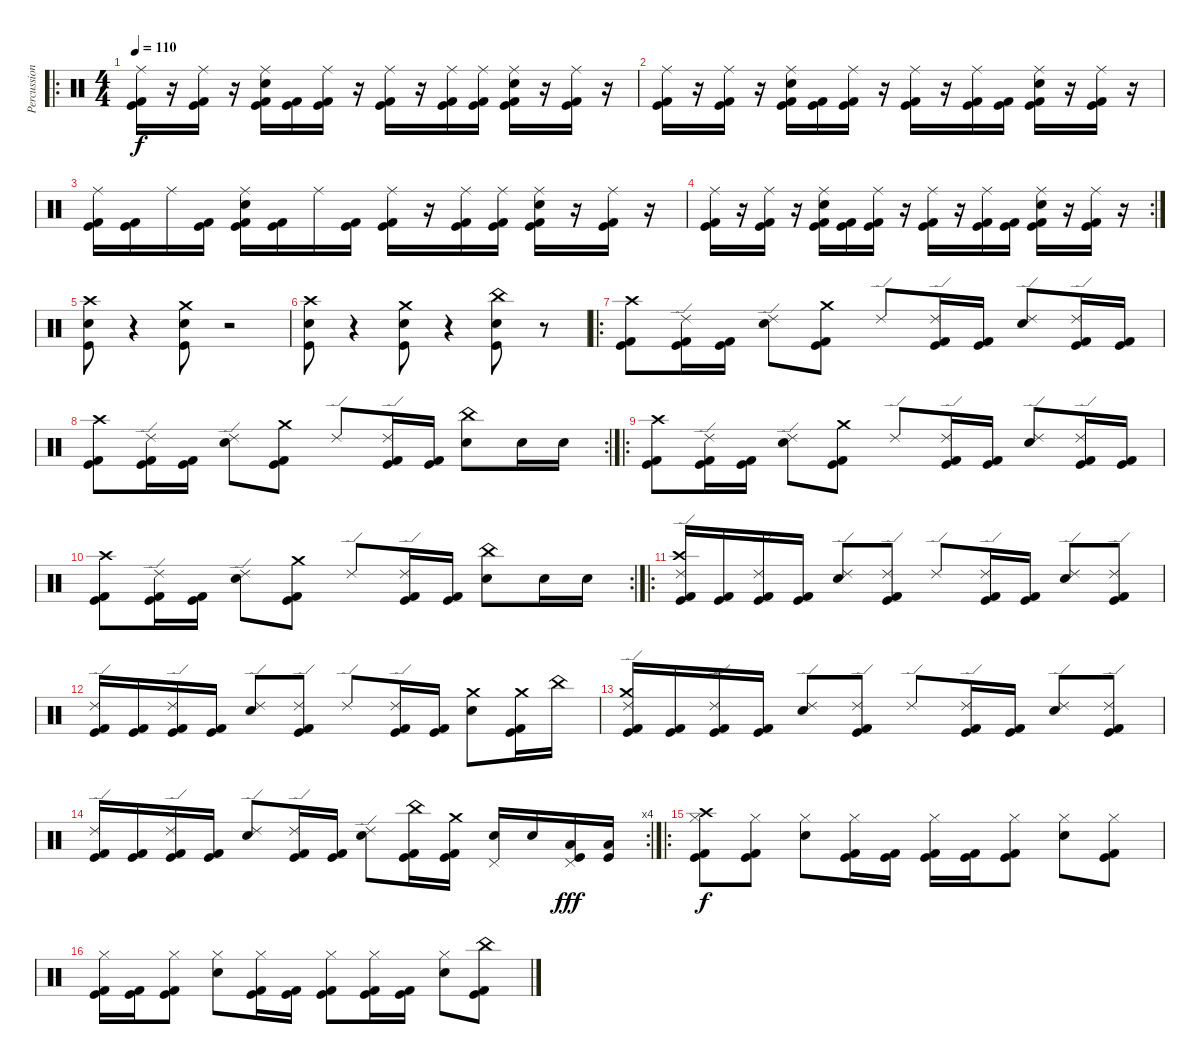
\track ("Percussion" "Percussion") {instrument percussion}
\staff {score}
\articulation defaults
\ro
\ts (4 4)
\tempo 110
\clef neutral
\ks c
("Ride (middle)" "Kick (hit) 2" "Kick (hit)").16{dy f} r.16 ("Ride (middle)" "Kick (hit) 2" "Kick (hit)").16 r.16 ("Ride (middle)" "Snare (hit) 2" "Kick (hit) 2" "Kick (hit)").16 ("Kick (hit) 2" "Kick (hit)").16 ("Ride (middle)" "Kick (hit) 2" "Kick (hit)").16 r.16 ("Ride (middle)" "Kick (hit) 2" "Kick (hit)").16 r.16 ("Ride (middle)" "Kick (hit) 2" "Kick (hit)").16 ("Ride (middle)" "Kick (hit) 2" "Kick (hit)").16 ("Ride (middle)" "Snare (hit) 2" "Kick (hit) 2" "Kick (hit)").16 r.16 ("Ride (middle)" "Kick (hit) 2" "Kick (hit)").16 r.16 |
("Ride (middle)" "Kick (hit) 2" "Kick (hit)").16 r.16 ("Ride (middle)" "Kick (hit) 2" "Kick (hit)").16 r.16 ("Ride (middle)" "Snare (hit) 2" "Kick (hit) 2" "Kick (hit)").16 ("Kick (hit) 2" "Kick (hit)").16 ("Ride (middle)" "Kick (hit) 2" "Kick (hit)").16 r.16 ("Ride (middle)" "Kick (hit) 2" "Kick (hit)").16 r.16 ("Ride (middle)" "Kick (hit) 2" "Kick (hit)").16 ("Kick (hit) 2" "Kick (hit)").16 ("Ride (middle)" "Snare (hit) 2" "Kick (hit) 2" "Kick (hit)").16 r.16 ("Ride (middle)" "Kick (hit) 2" "Kick (hit)").16 r.16 |
("Ride (middle)" "Kick (hit) 2" "Kick (hit)").16 ("Kick (hit) 2" "Kick (hit)").16 "Ride (middle)".16 ("Kick (hit) 2" "Kick (hit)").16 ("Ride (middle)" "Snare (hit) 2" "Kick (hit) 2" "Kick (hit)").16 ("Kick (hit) 2" "Kick (hit)").16 "Ride (middle)".16 ("Kick (hit) 2" "Kick (hit)").16 ("Ride (middle)" "Kick (hit) 2" "Kick (hit)").16 r.16 ("Ride (middle)" "Kick (hit) 2" "Kick (hit)").16 ("Ride (middle)" "Kick (hit) 2" "Kick (hit)").16 ("Ride (middle)" "Snare (hit) 2" "Kick (hit) 2" "Kick (hit)").16 r.16 ("Ride (middle)" "Kick (hit) 2" "Kick (hit)").16 r.16 |
\rc 2
("Ride (middle)" "Kick (hit) 2" "Kick (hit)").16 r.16 ("Ride (middle)" "Kick (hit) 2" "Kick (hit)").16 r.16 ("Ride (middle)" "Snare (hit) 2" "Kick (hit) 2" "Kick (hit)").16 ("Kick (hit) 2" "Kick (hit)").16 ("Ride (middle)" "Kick (hit) 2" "Kick (hit)").16 r.16 ("Ride (middle)" "Kick (hit) 2" "Kick (hit)").16 r.16 ("Ride (middle)" "Kick (hit) 2" "Kick (hit)").16 ("Kick (hit) 2" "Kick (hit)").16 ("Ride (middle)" "Snare (hit) 2" "Kick (hit) 2" "Kick (hit)").16 r.16 ("Ride (middle)" "Kick (hit) 2" "Kick (hit)").16 r.16 |
("Crash high (hit)" "Snare (hit) 2" "Kick (hit)").8 r.4 ("Crash medium (hit)" "Snare (hit) 2" "Kick (hit)").8 r.2 |
("Crash high (hit)" "Snare (hit) 2" "Kick (hit)").8 r.4 ("Crash medium (hit)" "Snare (hit) 2" "Kick (hit)").8 r.4 ("China (hit)" "Snare (hit) 2" "Kick (hit)").8 r.8 |
\ro
("Crash high (hit)" "Kick (hit) 2" "Kick (hit)").8 ("Ride (edge) 2" "Kick (hit) 2" "Kick (hit)").16 ("Kick (hit) 2" "Kick (hit)").16 ("Ride (edge) 2" "Snare (hit) 2").8 ("Crash medium (hit)" "Kick (hit) 2" "Kick (hit)").8 "Ride (edge) 2".8 ("Ride (edge) 2" "Kick (hit) 2" "Kick (hit)").16 ("Kick (hit) 2" "Kick (hit)").16 ("Ride (edge) 2" "Snare (hit) 2").8 ("Ride (edge) 2" "Kick (hit) 2" "Kick (hit)").16 ("Kick (hit) 2" "Kick (hit)").16 |
\rc 2
("Crash high (hit)" "Kick (hit) 2" "Kick (hit)").8 ("Ride (edge) 2" "Kick (hit) 2" "Kick (hit)").16 ("Kick (hit) 2" "Kick (hit)").16 ("Ride (edge) 2" "Snare (hit) 2").8 ("Crash medium (hit)" "Kick (hit) 2" "Kick (hit)").8 "Ride (edge) 2".8 ("Ride (edge) 2" "Kick (hit) 2" "Kick (hit)").16 ("Kick (hit) 2" "Kick (hit)").16 ("China (hit)" "Snare (hit) 2").8 "Snare (hit) 2".16 "Snare (hit) 2".16 |
\ro
("Crash high (hit)" "Kick (hit) 2" "Kick (hit)").8 ("Ride (edge) 2" "Kick (hit) 2" "Kick (hit)").16 ("Kick (hit) 2" "Kick (hit)").16 ("Ride (edge) 2" "Snare (hit) 2").8 ("Crash medium (hit)" "Kick (hit) 2" "Kick (hit)").8 "Ride (edge) 2".8 ("Ride (edge) 2" "Kick (hit) 2" "Kick (hit)").16 ("Kick (hit) 2" "Kick (hit)").16 ("Ride (edge) 2" "Snare (hit) 2").8 ("Ride (edge) 2" "Kick (hit) 2" "Kick (hit)").16 ("Kick (hit) 2" "Kick (hit)").16 |
\rc 2
("Crash high (hit)" "Kick (hit) 2" "Kick (hit)").8 ("Ride (edge) 2" "Kick (hit) 2" "Kick (hit)").16 ("Kick (hit) 2" "Kick (hit)").16 ("Ride (edge) 2" "Snare (hit) 2").8 ("Crash medium (hit)" "Kick (hit) 2" "Kick (hit)").8 "Ride (edge) 2".8 ("Ride (edge) 2" "Kick (hit) 2" "Kick (hit)").16 ("Kick (hit) 2" "Kick (hit)").16 ("China (hit)" "Snare (hit) 2").8 "Snare (hit) 2".16 "Snare (hit) 2".16 |
\ro
("Ride (edge) 2" "Crash high (hit)" "Kick (hit) 2" "Kick (hit)").16 ("Kick (hit) 2" "Kick (hit)").16 ("Ride (edge) 2" "Kick (hit) 2" "Kick (hit)").16 ("Kick (hit) 2" "Kick (hit)").16 ("Ride (edge) 2" "Snare (hit) 2").8 ("Ride (edge) 2" "Kick (hit) 2" "Kick (hit)").8 "Ride (edge) 2".8 ("Ride (edge) 2" "Kick (hit) 2" "Kick (hit)").16 ("Kick (hit) 2" "Kick (hit)").16 ("Ride (edge) 2" "Snare (hit) 2").8 ("Ride (edge) 2" "Kick (hit) 2" "Kick (hit)").8 |
("Ride (edge) 2" "Kick (hit) 2" "Kick (hit)").16 ("Kick (hit) 2" "Kick (hit)").16 ("Ride (edge) 2" "Kick (hit) 2" "Kick (hit)").16 ("Kick (hit) 2" "Kick (hit)").16 ("Ride (edge) 2" "Snare (hit) 2").8 ("Ride (edge) 2" "Kick (hit) 2" "Kick (hit)").8 "Ride (edge) 2".8 ("Ride (edge) 2" "Kick (hit) 2" "Kick (hit)").16 ("Kick (hit) 2" "Kick (hit)").16 ("Crash medium (hit)" "Snare (hit) 2").8 ("Crash medium (hit)" "Kick (hit) 2" "Kick (hit)").16 "China (hit)".16 |
("Ride (edge) 2" "Crash medium (hit)" "Kick (hit) 2" "Kick (hit)").16 ("Kick (hit) 2" "Kick (hit)").16 ("Ride (edge) 2" "Kick (hit) 2" "Kick (hit)").16 ("Kick (hit) 2" "Kick (hit)").16 ("Ride (edge) 2" "Snare (hit) 2").8 ("Ride (edge) 2" "Kick (hit) 2" "Kick (hit)").8 "Ride (edge) 2".8 ("Ride (edge) 2" "Kick (hit) 2" "Kick (hit)").16 ("Kick (hit) 2" "Kick (hit)").16 ("Ride (edge) 2" "Snare (hit) 2").8 ("Ride (edge) 2" "Kick (hit) 2" "Kick (hit)").8 |
\rc 4
("Ride (edge) 2" "Kick (hit) 2" "Kick (hit)").16 ("Kick (hit) 2" "Kick (hit)").16 ("Ride (edge) 2" "Kick (hit) 2" "Kick (hit)").16 ("Kick (hit) 2" "Kick (hit)").16 ("Ride (edge) 2" "Snare (hit) 2").8 ("Ride (edge) 2" "Kick (hit) 2" "Kick (hit)").16 ("Kick (hit) 2" "Kick (hit)").16 ("Ride (edge) 2" "Snare (hit) 2").8 ("China (hit)" "Kick (hit) 2" "Kick (hit)").16 ("Crash medium (hit)" "Kick (hit) 2" "Kick (hit)").16 ("Pedal Hi-Hat (hit)" "Snare (hit) 2").16 "Snare (hit) 2".16 ("Pedal Hi-Hat (hit)" "Low Tom (hit)" "Kick (hit)").16{dy fff} ("Low Tom (hit)" "Kick (hit)").16 |
\ro
("Hi-Hat (closed)" "Crash high (hit)" "Kick (hit) 2" "Kick (hit)").8{dy f} ("Hi-Hat (closed)" "Kick (hit) 2" "Kick (hit)").8 ("Hi-Hat (closed)" "Snare (hit) 2").8 ("Hi-Hat (closed)" "Kick (hit) 2" "Kick (hit)").16 ("Kick (hit) 2" "Kick (hit)").16 ("Hi-Hat (closed)" "Kick (hit) 2" "Kick (hit)").16 ("Kick (hit) 2" "Kick (hit)").16 ("Hi-Hat (closed)" "Kick (hit) 2" "Kick (hit)").8 ("Hi-Hat (closed)" "Snare (hit) 2").8 ("Hi-Hat (closed)" "Kick (hit) 2" "Kick (hit)").8 |
("Hi-Hat (closed)" "Kick (hit) 2" "Kick (hit)").16 ("Kick (hit) 2" "Kick (hit)").16 ("Hi-Hat (closed)" "Kick (hit) 2" "Kick (hit)").8 ("Hi-Hat (closed)" "Snare (hit) 2").8 ("Hi-Hat (closed)" "Kick (hit) 2" "Kick (hit)").16 ("Kick (hit) 2" "Kick (hit)").16 ("Hi-Hat (closed)" "Kick (hit) 2" "Kick (hit)").8 ("Hi-Hat (closed)" "Kick (hit) 2" "Kick (hit)").16 ("Kick (hit) 2" "Kick (hit)").16 ("Hi-Hat (closed)" "Snare (hit) 2").8 ("China (hit)" "Kick (hit) 2" "Kick (hit)").8
